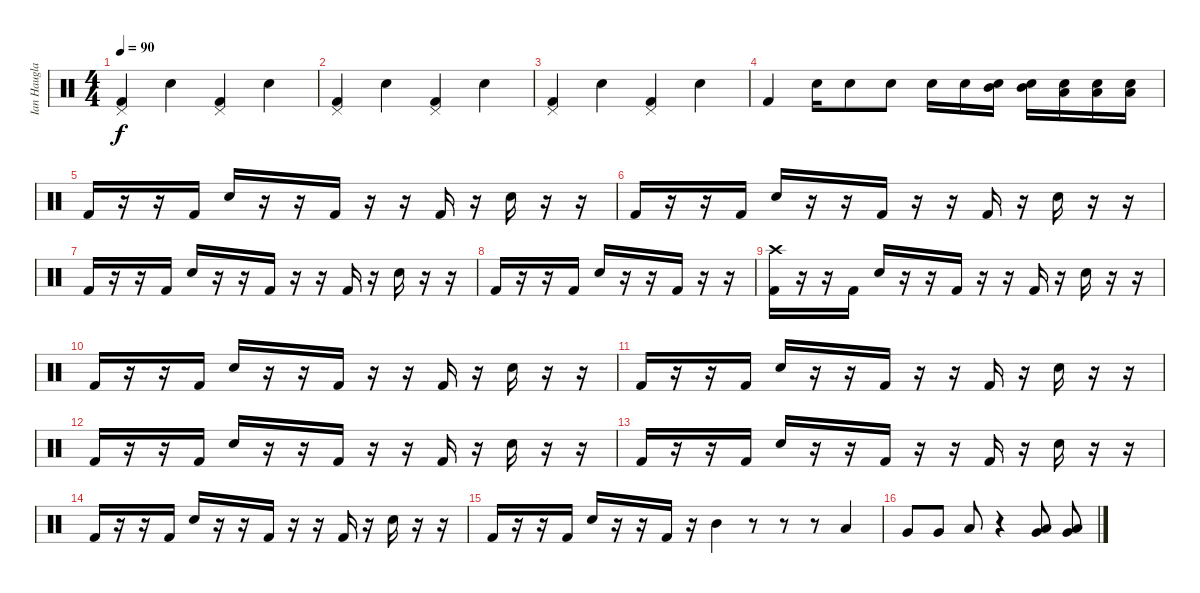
\track ("Ian Haugland" "Ian Haugla") {instrument percussion}
\staff {score}
\articulation defaults
\ts (4 4)
\tempo 90
\clef neutral
\ks c
("Pedal Hi-Hat (hit)" "Kick (hit) 2").4{dy f} "Snare (hit) 2".4 ("Pedal Hi-Hat (hit)" "Kick (hit) 2").4 "Snare (hit) 2".4 |
("Pedal Hi-Hat (hit)" "Kick (hit) 2").4 "Snare (hit) 2".4 ("Pedal Hi-Hat (hit)" "Kick (hit) 2").4 "Snare (hit) 2".4 |
("Pedal Hi-Hat (hit)" "Kick (hit) 2").4 "Snare (hit) 2".4 ("Pedal Hi-Hat (hit)" "Kick (hit) 2").4 "Snare (hit) 2".4 |
"Kick (hit) 2".4 "Electric Snare (hit)".16 "Electric Snare (hit)".8 "Electric Snare (hit)".8 "Electric Snare (hit)".16 "Electric Snare (hit)".16 ("Mid Tom (hit)" "Electric Snare (hit)").16 ("Mid Tom (hit)" "Electric Snare (hit)").16 ("Low Tom (hit)" "Electric Snare (hit)").16 ("Low Tom (hit)" "Electric Snare (hit)").16 ("Low Floor Tom (hit)" "Electric Snare (hit)").16 |
"Kick (hit) 2".16 r.16 r.16 "Kick (hit) 2".16 "Electric Snare (hit)".16 r.16 r.16 "Kick (hit) 2".16 r.16 r.16 "Kick (hit) 2".16 r.16 "Electric Snare (hit)".16 r.16 r.16 |
"Kick (hit) 2".16 r.16 r.16 "Kick (hit) 2".16 "Electric Snare (hit)".16 r.16 r.16 "Kick (hit) 2".16 r.16 r.16 "Kick (hit) 2".16 r.16 "Electric Snare (hit)".16 r.16 r.16 |
"Kick (hit) 2".16 r.16 r.16 "Kick (hit) 2".16 "Electric Snare (hit)".16 r.16 r.16 "Kick (hit) 2".16 r.16 r.16 "Kick (hit) 2".16 r.16 "Electric Snare (hit)".16 r.16 r.16 |
"Kick (hit) 2".16 r.16 r.16 "Kick (hit) 2".16 "Electric Snare (hit)".16 r.16 r.16 "Kick (hit) 2".16 r.16 r.16 |
("Crash high (hit)" "Kick (hit) 2").16 r.16 r.16 "Kick (hit) 2".16 "Electric Snare (hit)".16 r.16 r.16 "Kick (hit) 2".16 r.16 r.16 "Kick (hit) 2".16 r.16 "Electric Snare (hit)".16 r.16 r.16 |
"Kick (hit) 2".16 r.16 r.16 "Kick (hit) 2".16 "Electric Snare (hit)".16 r.16 r.16 "Kick (hit) 2".16 r.16 r.16 "Kick (hit) 2".16 r.16 "Electric Snare (hit)".16 r.16 r.16 |
"Kick (hit) 2".16 r.16 r.16 "Kick (hit) 2".16 "Electric Snare (hit)".16 r.16 r.16 "Kick (hit) 2".16 r.16 r.16 "Kick (hit) 2".16 r.16 "Electric Snare (hit)".16 r.16 r.16 |
"Kick (hit) 2".16 r.16 r.16 "Kick (hit) 2".16 "Electric Snare (hit)".16 r.16 r.16 "Kick (hit) 2".16 r.16 r.16 "Kick (hit) 2".16 r.16 "Electric Snare (hit)".16 r.16 r.16 |
"Kick (hit) 2".16 r.16 r.16 "Kick (hit) 2".16 "Electric Snare (hit)".16 r.16 r.16 "Kick (hit) 2".16 r.16 r.16 "Kick (hit) 2".16 r.16 "Electric Snare (hit)".16 r.16 r.16 |
"Kick (hit) 2".16 r.16 r.16 "Kick (hit) 2".16 "Electric Snare (hit)".16 r.16 r.16 "Kick (hit) 2".16 r.16 r.16 "Kick (hit) 2".16 r.16 "Electric Snare (hit)".16 r.16 r.16 |
"Kick (hit) 2".16 r.16 r.16 "Kick (hit) 2".16 "Electric Snare (hit)".16 r.16 r.16 "Kick (hit) 2".16 r.16 "Mid Tom (hit)".4 r.8 r.8 r.8 "Low Tom (hit)".4 |
"Very Low Tom (hit)".8 "Very Low Tom (hit)".8 "Low Floor Tom (hit)".8 r.4 ("Low Tom (hit)" "Very Low Tom (hit)").8 ("Low Floor Tom (hit)" "Very Low Tom (hit)").8
